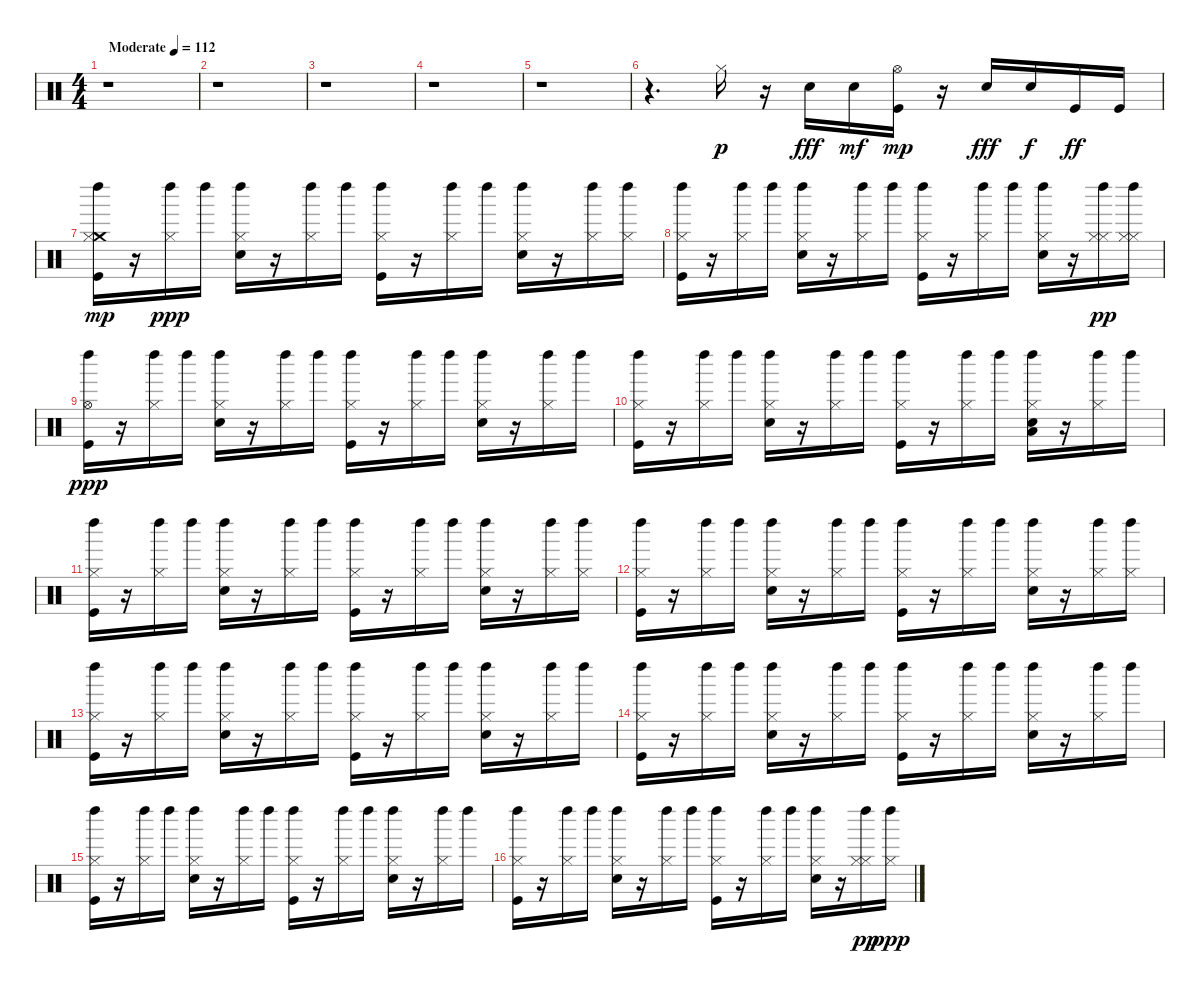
\track "" {instrument percussion}
\staff {score}
\articulation defaults
\ts (4 4)
\tempo (112 "Moderate")
\clef neutral
\ks c
r.1{dy p} |
r.1 |
r.1 |
r.1 |
r.1 |
r.4{d} "Hi-Hat (closed)".16 r.16 "Electric Snare (hit)".16{dy fff} "Electric Snare (hit)".16{dy mf} ("Kick (hit)" "Hi-Hat (open)").16{dy mp} r.16 "Electric Snare (hit)".16{dy fff} "Electric Snare (hit)".16{dy f} "Kick (hit)".16{dy ff} "Kick (hit)".16 |
("Kick (hit)" "Crash medium (hit)" "Left Maraca (hit)" "Hi-Hat (closed)").16{dy mp} r.16 ("Hi-Hat (closed)" "Left Maraca (hit)").16{dy ppp} "Left Maraca (hit)".16 ("Electric Snare (hit)" "Hi-Hat (closed)" "Left Maraca (hit)").16 r.16 ("Hi-Hat (closed)" "Left Maraca (hit)").16 "Left Maraca (hit)".16 ("Kick (hit)" "Hi-Hat (closed)" "Left Maraca (hit)").16 r.16 ("Hi-Hat (closed)" "Left Maraca (hit)").16 "Left Maraca (hit)".16 ("Electric Snare (hit)" "Hi-Hat (closed)" "Left Maraca (hit)").16 r.16 ("Hi-Hat (closed)" "Left Maraca (hit)").16 ("Hi-Hat (closed)" "Left Maraca (hit)").16 |
("Kick (hit)" "Hi-Hat (closed)" "Left Maraca (hit)").16 r.16 ("Hi-Hat (closed)" "Left Maraca (hit)").16 "Left Maraca (hit)".16 ("Electric Snare (hit)" "Hi-Hat (closed)" "Left Maraca (hit)").16 r.16 ("Hi-Hat (closed)" "Left Maraca (hit)").16 "Left Maraca (hit)".16 ("Kick (hit)" "Hi-Hat (closed)" "Left Maraca (hit)").16 r.16 ("Hi-Hat (closed)" "Left Maraca (hit)").16 "Left Maraca (hit)".16 ("Electric Snare (hit)" "Hi-Hat (closed)" "Left Maraca (hit)").16 r.16 ("Hi-Hat (closed)" "Left Maraca (hit)" "Hi-Hat (closed)").16{dy pp} ("Hi-Hat (closed)" "Left Maraca (hit)" "Hi-Hat (closed)").16 |
("Kick (hit)" "Hi-Hat (open)" "Left Maraca (hit)").16{dy ppp} r.16 ("Hi-Hat (closed)" "Left Maraca (hit)").16 "Left Maraca (hit)".16 ("Electric Snare (hit)" "Hi-Hat (closed)" "Left Maraca (hit)").16 r.16 ("Hi-Hat (closed)" "Left Maraca (hit)").16 "Left Maraca (hit)".16 ("Kick (hit)" "Hi-Hat (closed)" "Left Maraca (hit)").16 r.16 ("Hi-Hat (closed)" "Left Maraca (hit)").16 "Left Maraca (hit)".16 ("Electric Snare (hit)" "Hi-Hat (closed)" "Left Maraca (hit)").16 r.16 ("Hi-Hat (closed)" "Left Maraca (hit)").16 "Left Maraca (hit)".16 |
("Kick (hit)" "Hi-Hat (closed)" "Left Maraca (hit)").16 r.16 ("Hi-Hat (closed)" "Left Maraca (hit)").16 "Left Maraca (hit)".16 ("Electric Snare (hit)" "Hi-Hat (closed)" "Left Maraca (hit)").16 r.16 ("Hi-Hat (closed)" "Left Maraca (hit)").16 "Left Maraca (hit)".16 ("Kick (hit)" "Hi-Hat (closed)" "Left Maraca (hit)").16 r.16 ("Hi-Hat (closed)" "Left Maraca (hit)").16 "Left Maraca (hit)".16 ("Electric Snare (hit)" "Low Floor Tom (hit)" "Hi-Hat (closed)" "Left Maraca (hit)").16 r.16 ("Hi-Hat (closed)" "Left Maraca (hit)").16 "Left Maraca (hit)".16 |
("Kick (hit)" "Hi-Hat (closed)" "Left Maraca (hit)").16 r.16 ("Hi-Hat (closed)" "Left Maraca (hit)").16 "Left Maraca (hit)".16 ("Electric Snare (hit)" "Hi-Hat (closed)" "Left Maraca (hit)").16 r.16 ("Hi-Hat (closed)" "Left Maraca (hit)").16 "Left Maraca (hit)".16 ("Kick (hit)" "Hi-Hat (closed)" "Left Maraca (hit)").16 r.16 ("Hi-Hat (closed)" "Left Maraca (hit)").16 "Left Maraca (hit)".16 ("Electric Snare (hit)" "Hi-Hat (closed)" "Left Maraca (hit)").16 r.16 ("Hi-Hat (closed)" "Left Maraca (hit)").16 ("Hi-Hat (closed)" "Left Maraca (hit)").16 |
("Kick (hit)" "Hi-Hat (closed)" "Left Maraca (hit)").16 r.16 ("Hi-Hat (closed)" "Left Maraca (hit)").16 "Left Maraca (hit)".16 ("Electric Snare (hit)" "Hi-Hat (closed)" "Left Maraca (hit)").16 r.16 ("Hi-Hat (closed)" "Left Maraca (hit)").16 "Left Maraca (hit)".16 ("Kick (hit)" "Hi-Hat (closed)" "Left Maraca (hit)").16 r.16 ("Hi-Hat (closed)" "Left Maraca (hit)").16 "Left Maraca (hit)".16 ("Electric Snare (hit)" "Hi-Hat (closed)" "Left Maraca (hit)").16 r.16 ("Hi-Hat (closed)" "Left Maraca (hit)").16 ("Hi-Hat (closed)" "Left Maraca (hit)").16 |
("Kick (hit)" "Hi-Hat (closed)" "Left Maraca (hit)").16 r.16 ("Hi-Hat (closed)" "Left Maraca (hit)").16 "Left Maraca (hit)".16 ("Electric Snare (hit)" "Hi-Hat (closed)" "Left Maraca (hit)").16 r.16 ("Hi-Hat (closed)" "Left Maraca (hit)").16 "Left Maraca (hit)".16 ("Kick (hit)" "Hi-Hat (closed)" "Left Maraca (hit)").16 r.16 ("Hi-Hat (closed)" "Left Maraca (hit)").16 "Left Maraca (hit)".16 ("Electric Snare (hit)" "Hi-Hat (closed)" "Left Maraca (hit)").16 r.16 ("Hi-Hat (closed)" "Left Maraca (hit)").16 "Left Maraca (hit)".16 |
("Kick (hit)" "Hi-Hat (closed)" "Left Maraca (hit)").16 r.16 ("Hi-Hat (closed)" "Left Maraca (hit)").16 "Left Maraca (hit)".16 ("Electric Snare (hit)" "Hi-Hat (closed)" "Left Maraca (hit)").16 r.16 ("Hi-Hat (closed)" "Left Maraca (hit)").16 "Left Maraca (hit)".16 ("Kick (hit)" "Hi-Hat (closed)" "Left Maraca (hit)").16 r.16 ("Hi-Hat (closed)" "Left Maraca (hit)").16 "Left Maraca (hit)".16 ("Electric Snare (hit)" "Hi-Hat (closed)" "Left Maraca (hit)").16 r.16 ("Hi-Hat (closed)" "Left Maraca (hit)").16 "Left Maraca (hit)".16 |
("Kick (hit)" "Hi-Hat (closed)" "Left Maraca (hit)").16 r.16 ("Hi-Hat (closed)" "Left Maraca (hit)").16 "Left Maraca (hit)".16 ("Electric Snare (hit)" "Hi-Hat (closed)" "Left Maraca (hit)").16 r.16 ("Hi-Hat (closed)" "Left Maraca (hit)").16 "Left Maraca (hit)".16 ("Kick (hit)" "Hi-Hat (closed)" "Left Maraca (hit)").16 r.16 ("Hi-Hat (closed)" "Left Maraca (hit)").16 "Left Maraca (hit)".16 ("Electric Snare (hit)" "Hi-Hat (closed)" "Left Maraca (hit)").16 r.16 ("Hi-Hat (closed)" "Left Maraca (hit)").16 "Left Maraca (hit)".16 |
("Kick (hit)" "Hi-Hat (closed)" "Left Maraca (hit)").16 r.16 ("Hi-Hat (closed)" "Left Maraca (hit)").16 "Left Maraca (hit)".16 ("Electric Snare (hit)" "Hi-Hat (closed)" "Left Maraca (hit)").16 r.16 ("Hi-Hat (closed)" "Left Maraca (hit)").16 "Left Maraca (hit)".16 ("Kick (hit)" "Hi-Hat (closed)" "Left Maraca (hit)").16 r.16 ("Hi-Hat (closed)" "Left Maraca (hit)").16 "Left Maraca (hit)".16 ("Electric Snare (hit)" "Hi-Hat (closed)" "Left Maraca (hit)").16 r.16 ("Hi-Hat (closed)" "Left Maraca (hit)" "Hi-Hat (closed)").16{dy pp} ("Hi-Hat (closed)" "Left Maraca (hit)").16{dy ppp}
